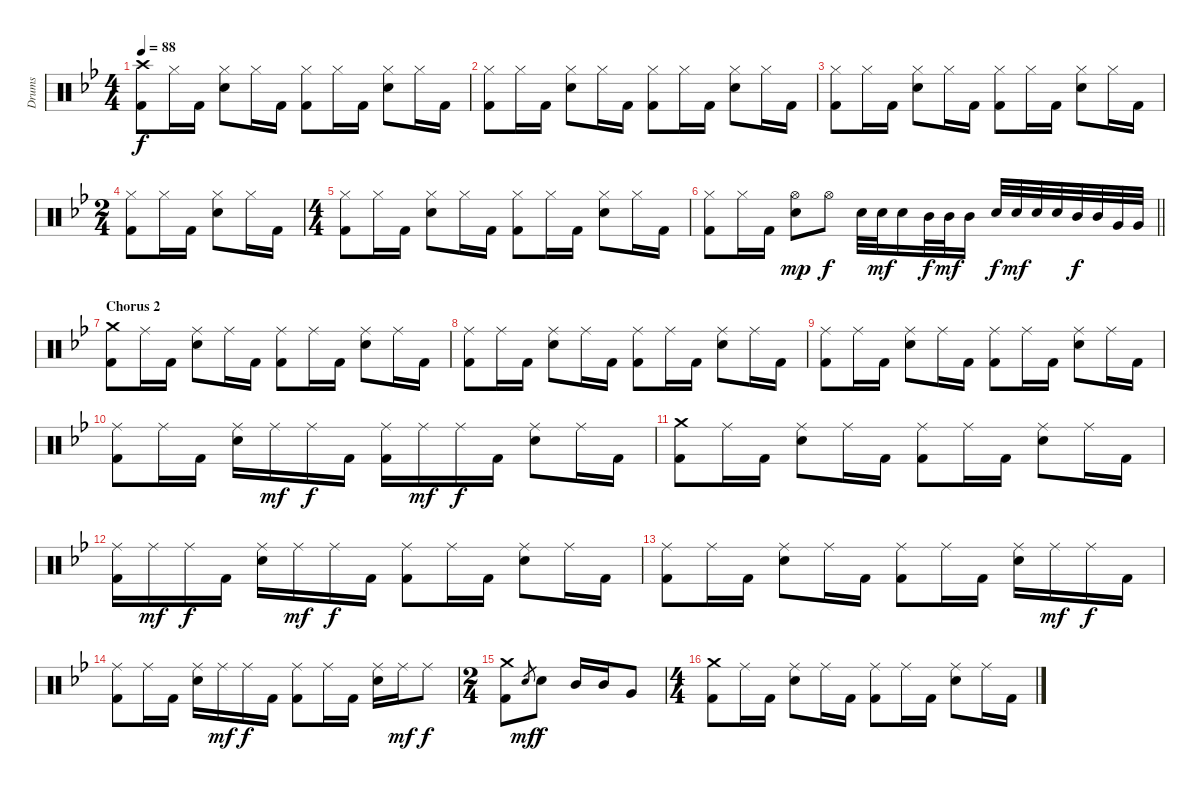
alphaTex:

\track ("Drums" "Drums") {instrument percussion}
\staff {score}
\articulation defaults
\ts (4 4)
\tempo 88
\clef neutral
\ks gminor
("Crash high (hit)" "Kick (hit) 2").8{dy f} "Hi-Hat (closed)".16 "Kick (hit) 2".16 ("Hi-Hat (closed)" "Electric Snare (hit)").8 "Hi-Hat (closed)".16 "Kick (hit) 2".16 ("Hi-Hat (closed)" "Kick (hit) 2").8 "Hi-Hat (closed)".16 "Kick (hit) 2".16 ("Hi-Hat (closed)" "Electric Snare (hit)").8 "Hi-Hat (closed)".16 "Kick (hit) 2".16 |
("Hi-Hat (closed)" "Kick (hit) 2").8 "Hi-Hat (closed)".16 "Kick (hit) 2".16 ("Hi-Hat (closed)" "Electric Snare (hit)").8 "Hi-Hat (closed)".16 "Kick (hit) 2".16 ("Hi-Hat (closed)" "Kick (hit) 2").8 "Hi-Hat (closed)".16 "Kick (hit) 2".16 ("Hi-Hat (closed)" "Electric Snare (hit)").8 "Hi-Hat (closed)".16 "Kick (hit) 2".16 |
("Hi-Hat (closed)" "Kick (hit) 2").8 "Hi-Hat (closed)".16 "Kick (hit) 2".16 ("Hi-Hat (closed)" "Electric Snare (hit)").8 "Hi-Hat (closed)".16 "Kick (hit) 2".16 ("Hi-Hat (closed)" "Kick (hit) 2").8 "Hi-Hat (closed)".16 "Kick (hit) 2".16 ("Hi-Hat (closed)" "Electric Snare (hit)").8 "Hi-Hat (closed)".16 "Kick (hit) 2".16 |
\ts (2 4)
("Hi-Hat (closed)" "Kick (hit) 2").8 "Hi-Hat (closed)".16 "Kick (hit) 2".16 ("Hi-Hat (closed)" "Electric Snare (hit)").8 "Hi-Hat (closed)".16 "Kick (hit) 2".16 |
\ts (4 4)
("Hi-Hat (closed)" "Kick (hit) 2").8 "Hi-Hat (closed)".16 "Kick (hit) 2".16 ("Hi-Hat (closed)" "Electric Snare (hit)").8 "Hi-Hat (closed)".16 "Kick (hit) 2".16 ("Hi-Hat (closed)" "Kick (hit) 2").8 "Hi-Hat (closed)".16 "Kick (hit) 2".16 ("Hi-Hat (closed)" "Electric Snare (hit)").8 "Hi-Hat (closed)".16 "Kick (hit) 2".16 |
\barLineRight lightlight
("Hi-Hat (closed)" "Kick (hit) 2").8 "Hi-Hat (closed)".16 "Kick (hit) 2".16 ("Hi-Hat (open)" "Electric Snare (hit)").8{dy mp} "Hi-Hat (open)".8{dy f} "Electric Snare (hit)".32 "Electric Snare (hit)".32{dy mf} "Electric Snare (hit)".16 "Mid Tom (hit)".32{dy f} "Mid Tom (hit)".32{dy mf} "Mid Tom (hit)".16 "Electric Snare (hit)".32{dy f} "Electric Snare (hit)".32{dy mf} "Electric Snare (hit)".32 "Electric Snare (hit)".32 "Mid Tom (hit)".32{dy f} "Mid Tom (hit)".32 "Very Low Tom (hit)".32 "Very Low Tom (hit)".32 |
\section ("" "Chorus 2")
("Crash medium (hit)" "Kick (hit) 2").8 "Ride (middle)".16 "Kick (hit) 2".16 ("Ride (middle)" "Electric Snare (hit)").8 "Ride (middle)".16 "Kick (hit) 2".16 ("Ride (middle)" "Kick (hit) 2").8 "Ride (middle)".16 "Kick (hit) 2".16 ("Ride (middle)" "Electric Snare (hit)").8 "Ride (middle)".16 "Kick (hit) 2".16 |
("Ride (middle)" "Kick (hit) 2").8 "Ride (middle)".16 "Kick (hit) 2".16 ("Ride (middle)" "Electric Snare (hit)").8 "Ride (middle)".16 "Kick (hit) 2".16 ("Ride (middle)" "Kick (hit) 2").8 "Ride (middle)".16 "Kick (hit) 2".16 ("Ride (middle)" "Electric Snare (hit)").8 "Ride (middle)".16 "Kick (hit) 2".16 |
("Ride (middle)" "Kick (hit) 2").8 "Ride (middle)".16 "Kick (hit) 2".16 ("Ride (middle)" "Electric Snare (hit)").8 "Ride (middle)".16 "Kick (hit) 2".16 ("Ride (middle)" "Kick (hit) 2").8 "Ride (middle)".16 "Kick (hit) 2".16 ("Ride (middle)" "Electric Snare (hit)").8 "Ride (middle)".16 "Kick (hit) 2".16 |
("Ride (middle)" "Kick (hit) 2").8 "Ride (middle)".16 "Kick (hit) 2".16 ("Ride (middle)" "Electric Snare (hit)").16 "Ride (middle)".16{dy mf} "Ride (middle)".16{dy f} "Kick (hit) 2".16 ("Ride (middle)" "Kick (hit) 2").16 "Ride (middle)".16{dy mf} "Ride (middle)".16{dy f} "Kick (hit) 2".16 ("Ride (middle)" "Electric Snare (hit)").8 "Ride (middle)".16 "Kick (hit) 2".16 |
("Crash medium (hit)" "Kick (hit) 2").8 "Ride (middle)".16 "Kick (hit) 2".16 ("Ride (middle)" "Electric Snare (hit)").8 "Ride (middle)".16 "Kick (hit) 2".16 ("Ride (middle)" "Kick (hit) 2").8 "Ride (middle)".16 "Kick (hit) 2".16 ("Ride (middle)" "Electric Snare (hit)").8 "Ride (middle)".16 "Kick (hit) 2".16 |
("Ride (middle)" "Kick (hit) 2").16 "Ride (middle)".16{dy mf} "Ride (middle)".16{dy f} "Kick (hit) 2".16 ("Ride (middle)" "Electric Snare (hit)").16 "Ride (middle)".16{dy mf} "Ride (middle)".16{dy f} "Kick (hit) 2".16 ("Ride (middle)" "Kick (hit) 2").8 "Ride (middle)".16 "Kick (hit) 2".16 ("Ride (middle)" "Electric Snare (hit)").8 "Ride (middle)".16 "Kick (hit) 2".16 |
("Ride (middle)" "Kick (hit) 2").8 "Ride (middle)".16 "Kick (hit) 2".16 ("Ride (middle)" "Electric Snare (hit)").8 "Ride (middle)".16 "Kick (hit) 2".16 ("Ride (middle)" "Kick (hit) 2").8 "Ride (middle)".16 "Kick (hit) 2".16 ("Ride (middle)" "Electric Snare (hit)").16 "Ride (middle)".16{dy mf} "Ride (middle)".16{dy f} "Kick (hit) 2".16 |
("Ride (middle)" "Kick (hit) 2").8 "Ride (middle)".16 "Kick (hit) 2".16 ("Ride (middle)" "Electric Snare (hit)").16 "Ride (middle)".16{dy mf} "Ride (middle)".16{dy f} "Kick (hit) 2".16 ("Ride (middle)" "Kick (hit) 2").8 "Ride (middle)".16 "Kick (hit) 2".16 ("Ride (middle)" "Electric Snare (hit)").16 "Ride (middle)".16{dy mf} "Ride (middle)".8{dy f} |
\ts (2 4)
("Crash medium (hit)" "Kick (hit) 2").8 "Electric Snare (hit)".8{gr dy mf} "Electric Snare (hit)".8{dy f} "Mid Tom (hit)".16 "Mid Tom (hit)".16 "Very Low Tom (hit)".8 |
\ts (4 4)
("Crash medium (hit)" "Kick (hit) 2").8 "Ride (middle)".16 "Kick (hit) 2".16 ("Ride (middle)" "Electric Snare (hit)").8 "Ride (middle)".16 "Kick (hit) 2".16 ("Ride (middle)" "Kick (hit) 2").8 "Ride (middle)".16 "Kick (hit) 2".16 ("Ride (middle)" "Electric Snare (hit)").8 "Ride (middle)".16 "Kick (hit) 2".16
